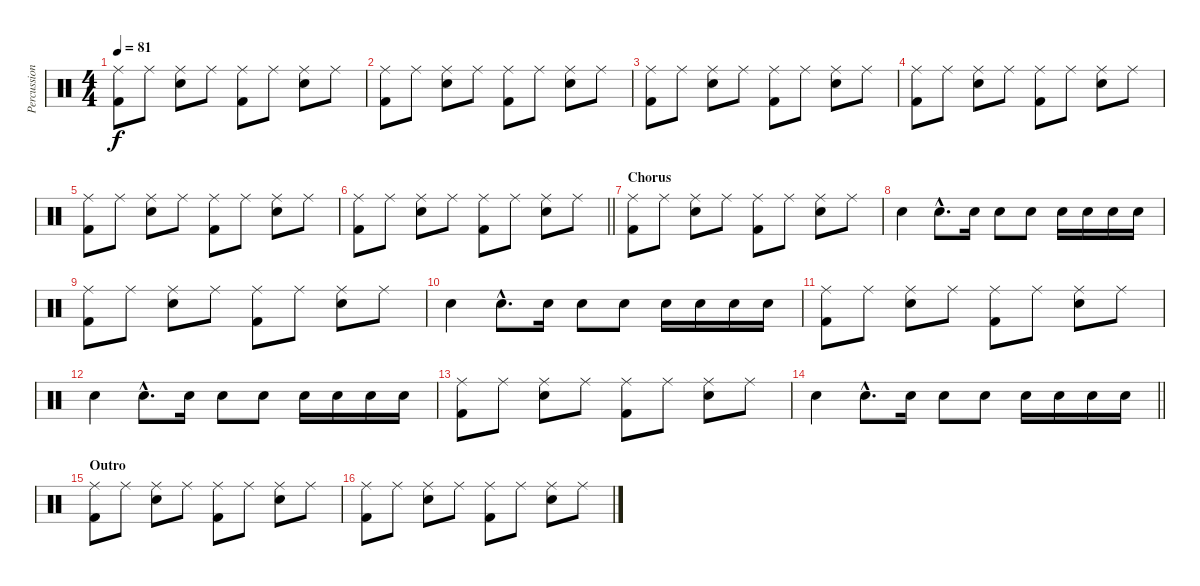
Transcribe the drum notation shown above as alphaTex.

\track ("Percussion" "Percussion") {instrument percussion}
\staff {score}
\articulation defaults
\ts (4 4)
\tempo 81
\clef neutral
\ks c
("Ride (middle)" "Kick (hit) 2").8{dy f} "Ride (middle)".8 ("Ride (middle)" "Snare (hit) 2").8 "Ride (middle)".8 ("Ride (middle)" "Kick (hit) 2").8 "Ride (middle)".8 ("Ride (middle)" "Snare (hit) 2").8 "Ride (middle)".8 |
("Ride (middle)" "Kick (hit) 2").8 "Ride (middle)".8 ("Ride (middle)" "Snare (hit) 2").8 "Ride (middle)".8 ("Ride (middle)" "Kick (hit) 2").8 "Ride (middle)".8 ("Ride (middle)" "Snare (hit) 2").8 "Ride (middle)".8 |
("Ride (middle)" "Kick (hit) 2").8 "Ride (middle)".8 ("Ride (middle)" "Snare (hit) 2").8 "Ride (middle)".8 ("Ride (middle)" "Kick (hit) 2").8 "Ride (middle)".8 ("Ride (middle)" "Snare (hit) 2").8 "Ride (middle)".8 |
("Ride (middle)" "Kick (hit) 2").8 "Ride (middle)".8 ("Ride (middle)" "Snare (hit) 2").8 "Ride (middle)".8 ("Ride (middle)" "Kick (hit) 2").8 "Ride (middle)".8 ("Ride (middle)" "Snare (hit) 2").8 "Ride (middle)".8 |
("Ride (middle)" "Kick (hit) 2").8 "Ride (middle)".8 ("Ride (middle)" "Snare (hit) 2").8 "Ride (middle)".8 ("Ride (middle)" "Kick (hit) 2").8 "Ride (middle)".8 ("Ride (middle)" "Snare (hit) 2").8 "Ride (middle)".8 |
\barLineRight lightlight
("Ride (middle)" "Kick (hit) 2").8 "Ride (middle)".8 ("Ride (middle)" "Snare (hit) 2").8 "Ride (middle)".8 ("Ride (middle)" "Kick (hit) 2").8 "Ride (middle)".8 ("Ride (middle)" "Snare (hit) 2").8 "Ride (middle)".8 |
\section ("" "Chorus")
("Ride (middle)" "Kick (hit) 2").8 "Ride (middle)".8 ("Ride (middle)" "Snare (hit) 2").8 "Ride (middle)".8 ("Ride (middle)" "Kick (hit) 2").8 "Ride (middle)".8 ("Ride (middle)" "Snare (hit) 2").8 "Ride (middle)".8 |
"Snare (hit) 2".4 "Snare (hit) 2"{hac}.8{d} "Snare (hit) 2".16 "Snare (hit) 2".8 "Snare (hit) 2".8 "Snare (hit) 2".16 "Snare (hit) 2".16 "Snare (hit) 2".16 "Snare (hit) 2".16 |
("Ride (middle)" "Kick (hit) 2").8 "Ride (middle)".8 ("Ride (middle)" "Snare (hit) 2").8 "Ride (middle)".8 ("Ride (middle)" "Kick (hit) 2").8 "Ride (middle)".8 ("Ride (middle)" "Snare (hit) 2").8 "Ride (middle)".8 |
"Snare (hit) 2".4 "Snare (hit) 2"{hac}.8{d} "Snare (hit) 2".16 "Snare (hit) 2".8 "Snare (hit) 2".8 "Snare (hit) 2".16 "Snare (hit) 2".16 "Snare (hit) 2".16 "Snare (hit) 2".16 |
("Ride (middle)" "Kick (hit) 2").8 "Ride (middle)".8 ("Ride (middle)" "Snare (hit) 2").8 "Ride (middle)".8 ("Ride (middle)" "Kick (hit) 2").8 "Ride (middle)".8 ("Ride (middle)" "Snare (hit) 2").8 "Ride (middle)".8 |
"Snare (hit) 2".4 "Snare (hit) 2"{hac}.8{d} "Snare (hit) 2".16 "Snare (hit) 2".8 "Snare (hit) 2".8 "Snare (hit) 2".16 "Snare (hit) 2".16 "Snare (hit) 2".16 "Snare (hit) 2".16 |
("Ride (middle)" "Kick (hit) 2").8 "Ride (middle)".8 ("Ride (middle)" "Snare (hit) 2").8 "Ride (middle)".8 ("Ride (middle)" "Kick (hit) 2").8 "Ride (middle)".8 ("Ride (middle)" "Snare (hit) 2").8 "Ride (middle)".8 |
\barLineRight lightlight "Snare (hit) 2".4 "Snare (hit) 2"{hac}.8{d} "Snare (hit) 2".16 "Snare (hit) 2".8 "Snare (hit) 2".8 "Snare (hit) 2".16 "Snare (hit) 2".16 "Snare (hit) 2".16 "Snare (hit) 2".16
|
\section ("" "Outro")
("Ride (middle)" "Kick (hit) 2").8 "Ride (middle)".8 ("Ride (middle)" "Snare (hit) 2").8 "Ride (middle)".8 ("Ride (middle)" "Kick (hit) 2").8 "Ride (middle)".8 ("Ride (middle)" "Snare (hit) 2").8 "Ride (middle)".8 |
("Ride (middle)" "Kick (hit) 2").8 "Ride (middle)".8 ("Ride (middle)" "Snare (hit) 2").8 "Ride (middle)".8 ("Ride (middle)" "Kick (hit) 2").8 "Ride (middle)".8 ("Ride (middle)" "Snare (hit) 2").8 "Ride (middle)".8
